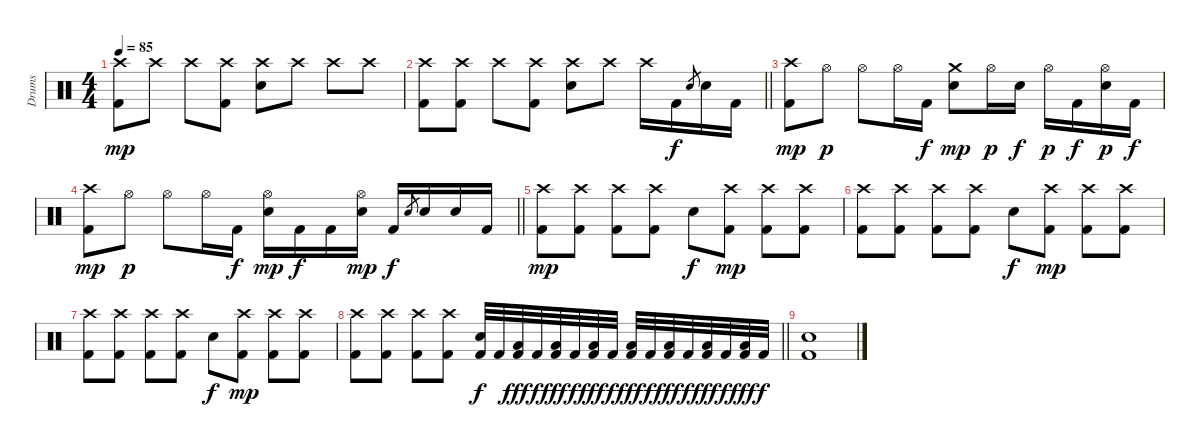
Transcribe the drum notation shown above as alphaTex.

\track ("Drums" "Drums") {instrument percussion}
\staff {score}
\articulation defaults
\ts (4 4)
\tempo 85
\clef neutral
\ks c
("Crash high (hit)" "Kick (hit) 2").8{dy mp} "Crash high (hit)".8 "Crash high (hit)".8 ("Crash high (hit)" "Kick (hit) 2").8 ("Crash high (hit)" "Electric Snare (hit)").8 "Crash high (hit)".8 "Crash high (hit)".8 "Crash high (hit)".8 |
\barLineRight lightlight
("Crash high (hit)" "Kick (hit) 2").8 ("Crash high (hit)" "Kick (hit) 2").8 "Crash high (hit)".8 ("Crash high (hit)" "Kick (hit) 2").8 ("Crash high (hit)" "Electric Snare (hit)").8 "Crash high (hit)".8 "Crash high (hit)".16 "Kick (hit) 2".16{dy f} "Electric Snare (hit)".8{gr} "Electric Snare (hit)".16 "Kick (hit) 2".16 |
("Crash high (hit)" "Kick (hit) 2").8{dy mp} "Hi-Hat (open)".8{dy p} "Hi-Hat (open)".8 "Hi-Hat (open)".16 "Kick (hit) 2".16{dy f} ("Crash medium (hit)" "Electric Snare (hit)").8{dy mp} "Hi-Hat (open)".16{dy p} "Electric Snare (hit)".16{dy f} "Hi-Hat (open)".16{dy p} "Kick (hit) 2".16{dy f} ("Hi-Hat (open)" "Electric Snare (hit)").16{dy p} "Kick (hit) 2".16{dy f} |
\barLineRight lightlight
("Crash high (hit)" "Kick (hit) 2").8{dy mp} "Hi-Hat (open)".8{dy p} "Hi-Hat (open)".8 "Hi-Hat (open)".16 "Kick (hit) 2".16{dy f} ("Hi-Hat (open)" "Electric Snare (hit)").16{dy mp} "Kick (hit) 2".16{dy f} "Kick (hit) 2".16 ("Hi-Hat (open)" "Electric Snare (hit)").16{dy mp} "Kick (hit) 2".16{dy f} "Electric Snare (hit)".8{gr} "Electric Snare (hit)".16 "Electric Snare (hit)".16 "Kick (hit) 2".16 |
("Crash high (hit)" "Kick (hit) 2").8{dy mp} ("Crash high (hit)" "Kick (hit) 2").8 ("Crash high (hit)" "Kick (hit) 2").8 ("Crash high (hit)" "Kick (hit) 2").8 "Electric Snare (hit)".8{dy f} ("Crash high (hit)" "Kick (hit) 2").8{dy mp} ("Crash high (hit)" "Kick (hit) 2").8 ("Crash high (hit)" "Kick (hit) 2").8 |
("Crash high (hit)" "Kick (hit) 2").8 ("Crash high (hit)" "Kick (hit) 2").8 ("Crash high (hit)" "Kick (hit) 2").8 ("Crash high (hit)" "Kick (hit) 2").8 "Electric Snare (hit)".8{dy f} ("Crash high (hit)" "Kick (hit) 2").8{dy mp} ("Crash high (hit)" "Kick (hit) 2").8 ("Crash high (hit)" "Kick (hit) 2").8 |
("Crash high (hit)" "Kick (hit) 2").8 ("Crash high (hit)" "Kick (hit) 2").8 ("Crash high (hit)" "Kick (hit) 2").8 ("Crash high (hit)" "Kick (hit) 2").8 "Electric Snare (hit)".8{dy f} ("Crash high (hit)" "Kick (hit) 2").8{dy mp} ("Crash high (hit)" "Kick (hit) 2").8 ("Crash high (hit)" "Kick (hit) 2").8 |
\barLineRight lightlight
("Crash high (hit)" "Kick (hit) 2").8 ("Crash high (hit)" "Kick (hit) 2").8 ("Crash high (hit)" "Kick (hit) 2").8 ("Crash high (hit)" "Kick (hit) 2").8 ("Electric Snare (hit)" "Kick (hit) 2").32{dy f} "Kick (hit) 2".32 ("Low Tom (hit)" "Kick (hit) 2").32{dy fff} "Kick (hit) 2".32{dy f} ("Low Tom (hit)" "Kick (hit) 2").32{dy fff} "Kick (hit) 2".32{dy f} ("Low Tom (hit)" "Kick (hit) 2").32{dy fff} "Kick (hit) 2".32{dy f} ("Low Tom (hit)" "Kick (hit) 2").32{dy fff} "Kick (hit) 2".32{dy f} ("Low Tom (hit)" "Kick (hit) 2").32{dy fff} "Kick (hit) 2".32{dy f} ("Low Tom (hit)" "Kick (hit) 2").32{dy fff} "Kick (hit) 2".32{dy f} ("Low Tom (hit)" "Kick (hit) 2").32{dy fff} "Kick (hit) 2".32{dy f} |
("Electric Snare (hit)" "Kick (hit) 2").1
